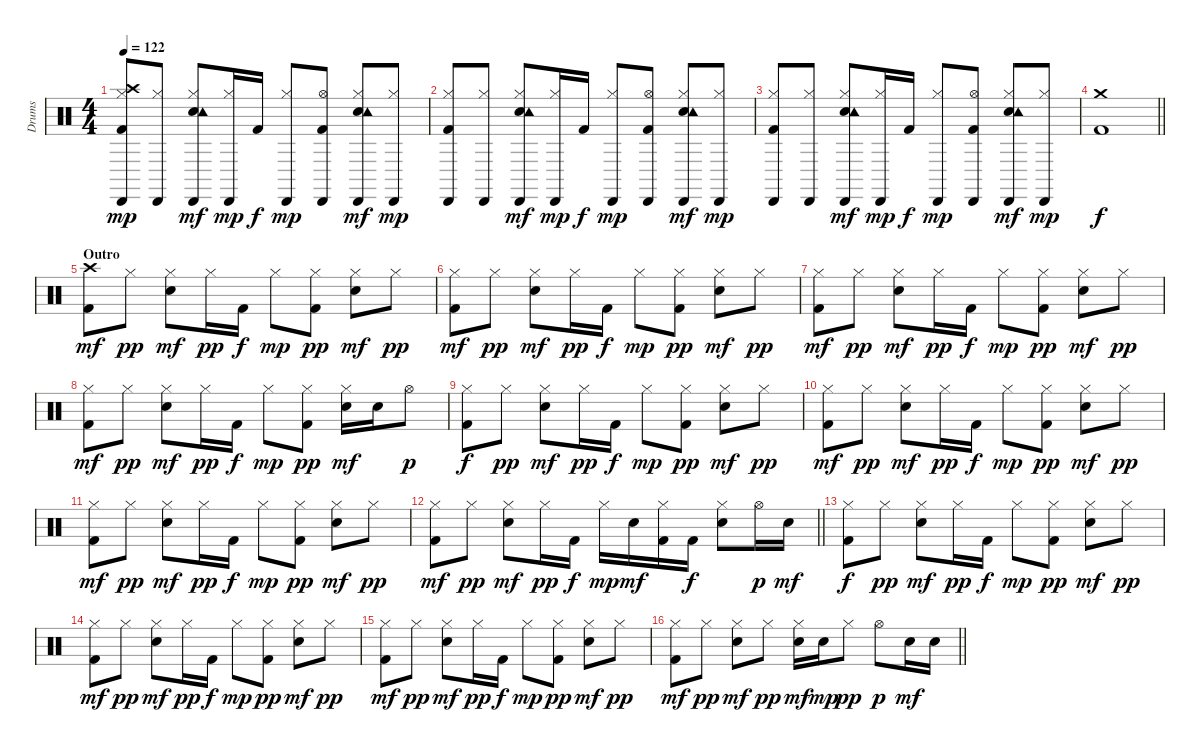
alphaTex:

\track ("Drums" "Drums") {instrument percussion}
\staff {score}
\articulation defaults
\ts (4 4)
\tempo 122
\clef neutral
\ks c
("Hi-Hat (closed)" "Crash high (hit)" "Cabasa (hit)" "Kick (hit) 2").8{dy mp} ("Hi-Hat (closed)" "Cabasa (hit)").8 ("Hi-Hat (closed)" "Electric Snare (hit)" "Cabasa (hit)" "Tambourine (hit)").8{dy mf} ("Hi-Hat (closed)" "Cabasa (hit)").16{dy mp} "Kick (hit) 2".16{dy f} ("Hi-Hat (closed)" "Cabasa (hit)").8{dy mp} ("Hi-Hat (open)" "Cabasa (hit)" "Kick (hit) 2").8 ("Hi-Hat (closed)" "Electric Snare (hit)" "Cabasa (hit)" "Tambourine (hit)").8{dy mf} ("Hi-Hat (closed)" "Cabasa (hit)").8{dy mp} |
("Hi-Hat (closed)" "Cabasa (hit)" "Kick (hit) 2").8 ("Hi-Hat (closed)" "Cabasa (hit)").8 ("Hi-Hat (closed)" "Electric Snare (hit)" "Cabasa (hit)" "Tambourine (hit)").8{dy mf} ("Hi-Hat (closed)" "Cabasa (hit)").16{dy mp} "Kick (hit) 2".16{dy f} ("Hi-Hat (closed)" "Cabasa (hit)").8{dy mp} ("Hi-Hat (open)" "Cabasa (hit)" "Kick (hit) 2").8 ("Hi-Hat (closed)" "Electric Snare (hit)" "Cabasa (hit)" "Tambourine (hit)").8{dy mf} ("Hi-Hat (closed)" "Cabasa (hit)").8{dy mp} |
("Hi-Hat (closed)" "Cabasa (hit)" "Kick (hit) 2").8 ("Hi-Hat (closed)" "Cabasa (hit)").8 ("Hi-Hat (closed)" "Electric Snare (hit)" "Cabasa (hit)" "Tambourine (hit)").8{dy mf} ("Hi-Hat (closed)" "Cabasa (hit)").16{dy mp} "Kick (hit) 2".16{dy f} ("Hi-Hat (closed)" "Cabasa (hit)").8{dy mp} ("Hi-Hat (open)" "Cabasa (hit)" "Kick (hit) 2").8 ("Hi-Hat (closed)" "Electric Snare (hit)" "Cabasa (hit)" "Tambourine (hit)").8{dy mf} ("Hi-Hat (closed)" "Cabasa (hit)").8{dy mp} |
\barLineRight lightlight
("Crash medium (hit)" "Kick (hit) 2").1{dy f} |
\section ("" "Outro")
("Crash high (hit)" "Kick (hit) 2").8{dy mf} "Hi-Hat (closed)".8{dy pp} ("Hi-Hat (closed)" "Electric Snare (hit)").8{dy mf} "Hi-Hat (closed)".16{dy pp} "Kick (hit) 2".16{dy f} "Hi-Hat (closed)".8{dy mp} ("Hi-Hat (closed)" "Kick (hit) 2").8{dy pp} ("Hi-Hat (closed)" "Electric Snare (hit)").8{dy mf} "Hi-Hat (closed)".8{dy pp} |
("Hi-Hat (closed)" "Kick (hit) 2").8{dy mf} "Hi-Hat (closed)".8{dy pp} ("Hi-Hat (closed)" "Electric Snare (hit)").8{dy mf} "Hi-Hat (closed)".16{dy pp} "Kick (hit) 2".16{dy f} "Hi-Hat (closed)".8{dy mp} ("Hi-Hat (closed)" "Kick (hit) 2").8{dy pp} ("Hi-Hat (closed)" "Electric Snare (hit)").8{dy mf} "Hi-Hat (closed)".8{dy pp} |
("Hi-Hat (closed)" "Kick (hit) 2").8{dy mf} "Hi-Hat (closed)".8{dy pp} ("Hi-Hat (closed)" "Electric Snare (hit)").8{dy mf} "Hi-Hat (closed)".16{dy pp} "Kick (hit) 2".16{dy f} "Hi-Hat (closed)".8{dy mp} ("Hi-Hat (closed)" "Kick (hit) 2").8{dy pp} ("Hi-Hat (closed)" "Electric Snare (hit)").8{dy mf} "Hi-Hat (closed)".8{dy pp} |
("Hi-Hat (closed)" "Kick (hit) 2").8{dy mf} "Hi-Hat (closed)".8{dy pp} ("Hi-Hat (closed)" "Electric Snare (hit)").8{dy mf} "Hi-Hat (closed)".16{dy pp} "Kick (hit) 2".16{dy f} "Hi-Hat (closed)".8{dy mp} ("Hi-Hat (closed)" "Kick (hit) 2").8{dy pp} ("Hi-Hat (closed)" "Electric Snare (hit)").16{dy mf} "Electric Snare (hit)".16 "Hi-Hat (open)".8{dy p} |
("Hi-Hat (closed)" "Kick (hit) 2").8{dy f} "Hi-Hat (closed)".8{dy pp} ("Hi-Hat (closed)" "Electric Snare (hit)").8{dy mf} "Hi-Hat (closed)".16{dy pp} "Kick (hit) 2".16{dy f} "Hi-Hat (closed)".8{dy mp} ("Hi-Hat (closed)" "Kick (hit) 2").8{dy pp} ("Hi-Hat (closed)" "Electric Snare (hit)").8{dy mf} "Hi-Hat (closed)".8{dy pp} |
("Hi-Hat (closed)" "Kick (hit) 2").8{dy mf} "Hi-Hat (closed)".8{dy pp} ("Hi-Hat (closed)" "Electric Snare (hit)").8{dy mf} "Hi-Hat (closed)".16{dy pp} "Kick (hit) 2".16{dy f} "Hi-Hat (closed)".8{dy mp} ("Hi-Hat (closed)" "Kick (hit) 2").8{dy pp} ("Hi-Hat (closed)" "Electric Snare (hit)").8{dy mf} "Hi-Hat (closed)".8{dy pp} |
("Hi-Hat (closed)" "Kick (hit) 2").8{dy mf} "Hi-Hat (closed)".8{dy pp} ("Hi-Hat (closed)" "Electric Snare (hit)").8{dy mf} "Hi-Hat (closed)".16{dy pp} "Kick (hit) 2".16{dy f} "Hi-Hat (closed)".8{dy mp} ("Hi-Hat (closed)" "Kick (hit) 2").8{dy pp} ("Hi-Hat (closed)" "Electric Snare (hit)").8{dy mf} "Hi-Hat (closed)".8{dy pp} |
\barLineRight lightlight
("Hi-Hat (closed)" "Kick (hit) 2").8{dy mf} "Hi-Hat (closed)".8{dy pp} ("Hi-Hat (closed)" "Electric Snare (hit)").8{dy mf} "Hi-Hat (closed)".16{dy pp} "Kick (hit) 2".16{dy f} "Hi-Hat (closed)".16{dy mp} "Electric Snare (hit)".16{dy mf} ("Hi-Hat (closed)" "Kick (hit) 2").16 "Kick (hit) 2".16{dy f} ("Hi-Hat (closed)" "Electric Snare (hit)").8 "Hi-Hat (open)".16{dy p} "Electric Snare (hit)".16{dy mf} |
("Hi-Hat (closed)" "Kick (hit) 2").8{dy f} "Hi-Hat (closed)".8{dy pp} ("Hi-Hat (closed)" "Electric Snare (hit)").8{dy mf} "Hi-Hat (closed)".16{dy pp} "Kick (hit) 2".16{dy f} "Hi-Hat (closed)".8{dy mp} ("Hi-Hat (closed)" "Kick (hit) 2").8{dy pp} ("Hi-Hat (closed)" "Electric Snare (hit)").8{dy mf} "Hi-Hat (closed)".8{dy pp} |
("Hi-Hat (closed)" "Kick (hit) 2").8{dy mf} "Hi-Hat (closed)".8{dy pp} ("Hi-Hat (closed)" "Electric Snare (hit)").8{dy mf} "Hi-Hat (closed)".16{dy pp} "Kick (hit) 2".16{dy f} "Hi-Hat (closed)".8{dy mp} ("Hi-Hat (closed)" "Kick (hit) 2").8{dy pp} ("Hi-Hat (closed)" "Electric Snare (hit)").8{dy mf} "Hi-Hat (closed)".8{dy pp} |
("Hi-Hat (closed)" "Kick (hit) 2").8{dy mf} "Hi-Hat (closed)".8{dy pp} ("Hi-Hat (closed)" "Electric Snare (hit)").8{dy mf} "Hi-Hat (closed)".16{dy pp} "Kick (hit) 2".16{dy f} "Hi-Hat (closed)".8{dy mp} ("Hi-Hat (closed)" "Kick (hit) 2").8{dy pp} ("Hi-Hat (closed)" "Electric Snare (hit)").8{dy mf} "Hi-Hat (closed)".8{dy pp} |
\barLineRight lightlight
("Hi-Hat (closed)" "Kick (hit) 2").8{dy mf} "Hi-Hat (closed)".8{dy pp} ("Hi-Hat (closed)" "Electric Snare (hit)").8{dy mf} "Hi-Hat (closed)".8{dy pp} ("Hi-Hat (closed)" "Electric Snare (hit)").16{dy mf} "Electric Snare (hit)".16{dy mp} "Hi-Hat (closed)".8{dy pp} "Hi-Hat (open)".8{dy p} "Electric Snare (hit)".16{dy mf} "Electric Snare (hit)".16
